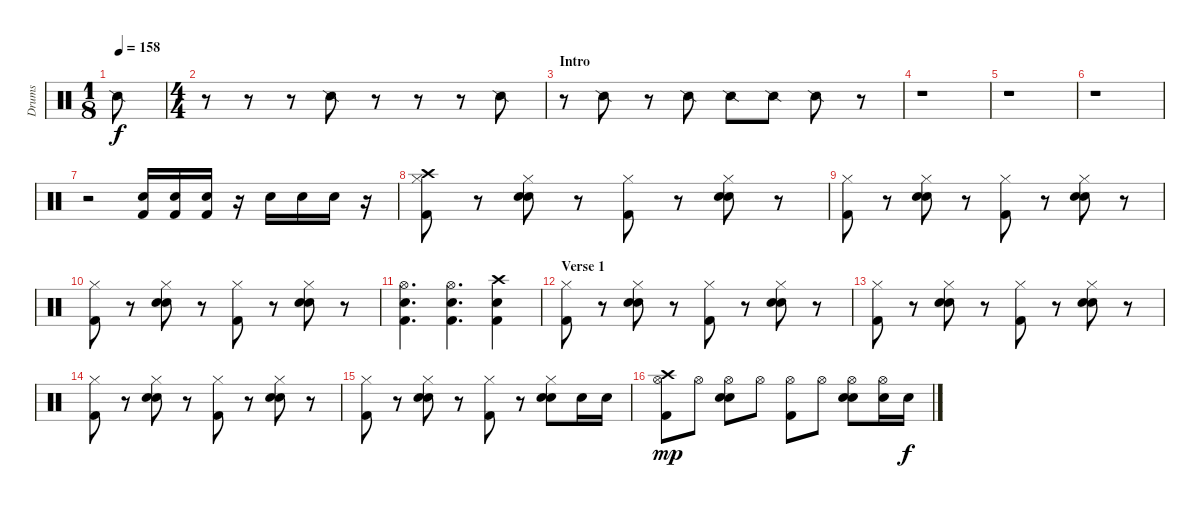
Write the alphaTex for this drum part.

\track ("Drums" "Drums") {instrument percussion}
\staff {score}
\articulation defaults
\ts (1 8)
\tempo 158
\clef neutral
\ks c "Snare (side stick) 2".8{dy f}
|
\ts (4 4)
r.8 r.8 r.8 "Snare (side stick) 2".8 r.8 r.8 r.8 "Snare (side stick) 2".8 |
\section ("" "Intro")
r.8 "Snare (side stick) 2".8 r.8 "Snare (side stick) 2".8 "Snare (side stick) 2".8 "Snare (side stick) 2".8 "Snare (side stick) 2".8 r.8 |
r.1 |
r.1 |
r.1 |
r.2 ("Snare (hit) 2" "Kick (hit) 2").16 ("Snare (hit) 2" "Kick (hit) 2").16 ("Snare (hit) 2" "Kick (hit) 2").16 r.16 "Snare (hit) 2".16 "Snare (hit) 2".16 "Snare (hit) 2".16 r.16 |
("Hi-Hat (closed)" "Crash high (hit)" "Kick (hit) 2").8 r.8 ("Hi-Hat (closed)" "Snare (hit) 2" "Snare (hit) 2").8 r.8 ("Hi-Hat (closed)" "Kick (hit) 2").8 r.8 ("Hi-Hat (closed)" "Snare (hit) 2" "Snare (hit) 2").8 r.8 |
("Hi-Hat (closed)" "Kick (hit) 2").8 r.8 ("Hi-Hat (closed)" "Snare (hit) 2" "Snare (hit) 2").8 r.8 ("Hi-Hat (closed)" "Kick (hit) 2").8 r.8 ("Hi-Hat (closed)" "Snare (hit) 2" "Snare (hit) 2").8 r.8 |
("Hi-Hat (closed)" "Kick (hit) 2").8 r.8 ("Hi-Hat (closed)" "Snare (hit) 2" "Snare (hit) 2").8 r.8 ("Hi-Hat (closed)" "Kick (hit) 2").8 r.8 ("Hi-Hat (closed)" "Snare (hit) 2" "Snare (hit) 2").8 r.8 |
("Hi-Hat (open)" "Snare (hit) 2" "Kick (hit) 2").4{d} ("Hi-Hat (open)" "Snare (hit) 2" "Kick (hit) 2").4{d} ("Crash high (hit)" "Snare (hit) 2" "Kick (hit) 2").4 |
\section ("" "Verse 1")
("Hi-Hat (closed)" "Kick (hit) 2").8 r.8 ("Hi-Hat (closed)" "Snare (hit) 2" "Snare (hit) 2").8 r.8 ("Hi-Hat (closed)" "Kick (hit) 2").8 r.8 ("Hi-Hat (closed)" "Snare (hit) 2" "Snare (hit) 2").8 r.8 |
("Hi-Hat (closed)" "Kick (hit) 2").8 r.8 ("Hi-Hat (closed)" "Snare (hit) 2" "Snare (hit) 2").8 r.8 ("Hi-Hat (closed)" "Kick (hit) 2").8 r.8 ("Hi-Hat (closed)" "Snare (hit) 2" "Snare (hit) 2").8 r.8 |
("Hi-Hat (closed)" "Kick (hit) 2").8 r.8 ("Hi-Hat (closed)" "Snare (hit) 2" "Snare (hit) 2").8 r.8 ("Hi-Hat (closed)" "Kick (hit) 2").8 r.8 ("Hi-Hat (closed)" "Snare (hit) 2" "Snare (hit) 2").8 r.8 |
("Hi-Hat (closed)" "Kick (hit) 2").8 r.8 ("Hi-Hat (closed)" "Snare (hit) 2" "Snare (hit) 2").8 r.8 ("Hi-Hat (closed)" "Kick (hit) 2").8 r.8 ("Hi-Hat (closed)" "Snare (hit) 2" "Snare (hit) 2").8 "Snare (hit) 2".16 "Snare (hit) 2".16 |
("Hi-Hat (open)" "Crash high (hit)" "Kick (hit) 2").8{dy mp} "Hi-Hat (open)".8 ("Hi-Hat (open)" "Snare (hit) 2" "Snare (hit) 2").8 "Hi-Hat (open)".8 ("Hi-Hat (open)" "Kick (hit) 2").8 "Hi-Hat (open)".8 ("Hi-Hat (open)" "Snare (hit) 2" "Snare (hit) 2").8 ("Hi-Hat (open)" "Snare (hit) 2").16 "Snare (hit) 2".16{dy f}
